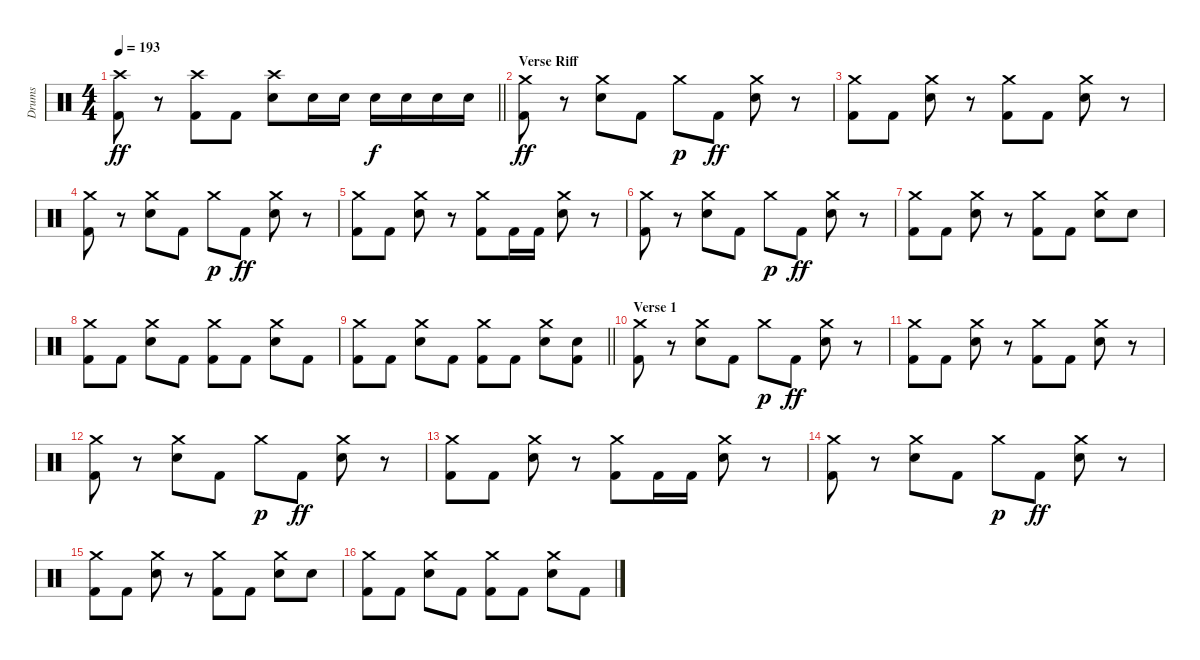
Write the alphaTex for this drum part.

\track ("Drums" "Drums") {instrument percussion}
\staff {score}
\articulation defaults
\ts (4 4)
\tempo 193
\clef neutral
\barLineRight lightlight
\ks c
("Crash high (hit)" "Kick (hit) 2").8{dy ff} r.8 ("Crash high (hit)" "Kick (hit) 2").8 "Kick (hit) 2".8 ("Crash high (hit)" "Snare (hit) 2").8 "Snare (hit) 2".16 "Snare (hit) 2".16 "Snare (hit) 2".16{dy f} "Snare (hit) 2".16 "Snare (hit) 2".16 "Snare (hit) 2".16 |
\section ("" "Verse Riff")
("Crash medium (hit)" "Kick (hit) 2").8{dy ff} r.8 ("Crash medium (hit)" "Snare (hit) 2").8 "Kick (hit) 2".8 "Crash medium (hit)".8{dy p} "Kick (hit) 2".8{dy ff} ("Crash medium (hit)" "Snare (hit) 2").8 r.8 |
("Crash medium (hit)" "Kick (hit) 2").8 "Kick (hit) 2".8 ("Crash medium (hit)" "Snare (hit) 2").8 r.8 ("Crash medium (hit)" "Kick (hit) 2").8 "Kick (hit) 2".8 ("Crash medium (hit)" "Snare (hit) 2").8 r.8 |
("Crash medium (hit)" "Kick (hit) 2").8 r.8 ("Crash medium (hit)" "Snare (hit) 2").8 "Kick (hit) 2".8 "Crash medium (hit)".8{dy p} "Kick (hit) 2".8{dy ff} ("Crash medium (hit)" "Snare (hit) 2").8 r.8 |
("Crash medium (hit)" "Kick (hit) 2").8 "Kick (hit) 2".8 ("Crash medium (hit)" "Snare (hit) 2").8 r.8 ("Crash medium (hit)" "Kick (hit) 2").8 "Kick (hit) 2".16 "Kick (hit) 2".16 ("Crash medium (hit)" "Snare (hit) 2").8 r.8 |
("Crash medium (hit)" "Kick (hit) 2").8 r.8 ("Crash medium (hit)" "Snare (hit) 2").8 "Kick (hit) 2".8 "Crash medium (hit)".8{dy p} "Kick (hit) 2".8{dy ff} ("Crash medium (hit)" "Snare (hit) 2").8 r.8 |
("Crash medium (hit)" "Kick (hit) 2").8 "Kick (hit) 2".8 ("Crash medium (hit)" "Snare (hit) 2").8 r.8 ("Crash medium (hit)" "Kick (hit) 2").8 "Kick (hit) 2".8 ("Crash medium (hit)" "Snare (hit) 2").8 "Snare (hit) 2".8 |
("Crash medium (hit)" "Kick (hit) 2").8 "Kick (hit) 2".8 ("Crash medium (hit)" "Snare (hit) 2").8 "Kick (hit) 2".8 ("Crash medium (hit)" "Kick (hit) 2").8 "Kick (hit) 2".8 ("Crash medium (hit)" "Snare (hit) 2").8 "Kick (hit) 2".8 |
\barLineRight lightlight
("Crash medium (hit)" "Kick (hit) 2").8 "Kick (hit) 2".8 ("Crash medium (hit)" "Snare (hit) 2").8 "Kick (hit) 2".8 ("Crash medium (hit)" "Kick (hit) 2").8 "Kick (hit) 2".8 ("Crash medium (hit)" "Snare (hit) 2").8 ("Snare (hit) 2" "Kick (hit) 2").8 |
\section ("" "Verse 1")
("Crash medium (hit)" "Kick (hit) 2").8 r.8 ("Crash medium (hit)" "Snare (hit) 2").8 "Kick (hit) 2".8 "Crash medium (hit)".8{dy p} "Kick (hit) 2".8{dy ff} ("Crash medium (hit)" "Snare (hit) 2").8 r.8 |
("Crash medium (hit)" "Kick (hit) 2").8 "Kick (hit) 2".8 ("Crash medium (hit)" "Snare (hit) 2").8 r.8 ("Crash medium (hit)" "Kick (hit) 2").8 "Kick (hit) 2".8 ("Crash medium (hit)" "Snare (hit) 2").8 r.8 |
("Crash medium (hit)" "Kick (hit) 2").8 r.8 ("Crash medium (hit)" "Snare (hit) 2").8 "Kick (hit) 2".8 "Crash medium (hit)".8{dy p} "Kick (hit) 2".8{dy ff} ("Crash medium (hit)" "Snare (hit) 2").8 r.8 |
("Crash medium (hit)" "Kick (hit) 2").8 "Kick (hit) 2".8 ("Crash medium (hit)" "Snare (hit) 2").8 r.8 ("Crash medium (hit)" "Kick (hit) 2").8 "Kick (hit) 2".16 "Kick (hit) 2".16 ("Crash medium (hit)" "Snare (hit) 2").8 r.8 |
("Crash medium (hit)" "Kick (hit) 2").8 r.8 ("Crash medium (hit)" "Snare (hit) 2").8 "Kick (hit) 2".8 "Crash medium (hit)".8{dy p} "Kick (hit) 2".8{dy ff} ("Crash medium (hit)" "Snare (hit) 2").8 r.8 |
("Crash medium (hit)" "Kick (hit) 2").8 "Kick (hit) 2".8 ("Crash medium (hit)" "Snare (hit) 2").8 r.8 ("Crash medium (hit)" "Kick (hit) 2").8 "Kick (hit) 2".8 ("Crash medium (hit)" "Snare (hit) 2").8 "Snare (hit) 2".8 |
("Crash medium (hit)" "Kick (hit) 2").8 "Kick (hit) 2".8 ("Crash medium (hit)" "Snare (hit) 2").8 "Kick (hit) 2".8 ("Crash medium (hit)" "Kick (hit) 2").8 "Kick (hit) 2".8 ("Crash medium (hit)" "Snare (hit) 2").8 "Kick (hit) 2".8
